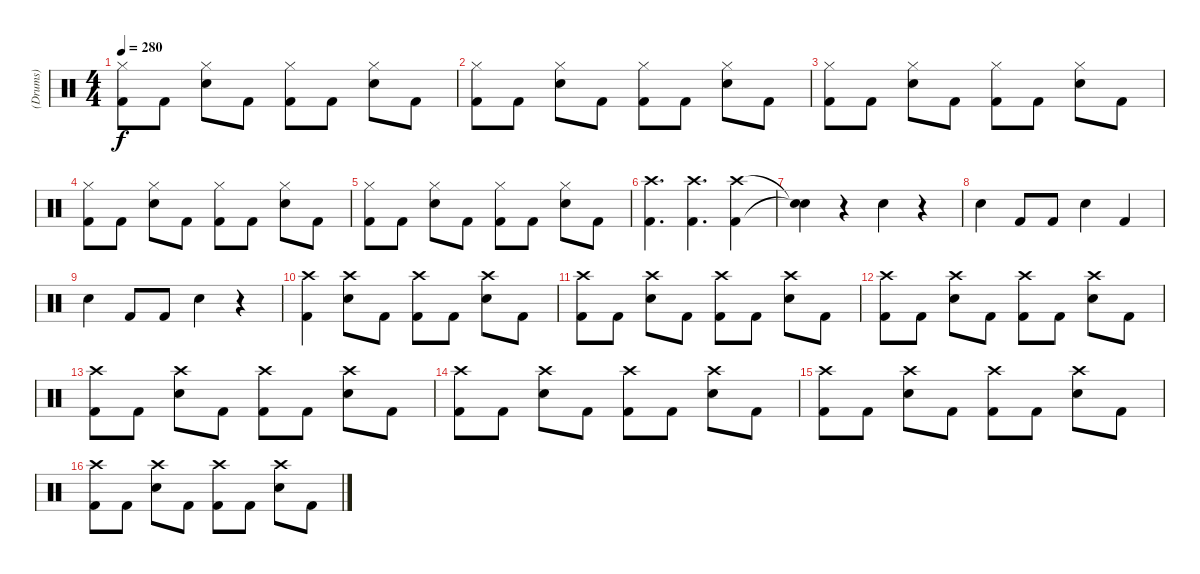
\track ("(Drums)" "(Drums)") {instrument percussion}
\staff {score}
\articulation defaults
\ts (4 4)
\tempo 280
\clef neutral
\ks c
("Hi-Hat (closed)" "Kick (hit) 2").8{dy f} "Kick (hit) 2".8 ("Hi-Hat (closed)" "Snare (hit) 2").8 "Kick (hit) 2".8 ("Hi-Hat (closed)" "Kick (hit) 2").8 "Kick (hit) 2".8 ("Hi-Hat (closed)" "Snare (hit) 2").8 "Kick (hit) 2".8 |
("Hi-Hat (closed)" "Kick (hit) 2").8 "Kick (hit) 2".8 ("Hi-Hat (closed)" "Snare (hit) 2").8 "Kick (hit) 2".8 ("Hi-Hat (closed)" "Kick (hit) 2").8 "Kick (hit) 2".8 ("Hi-Hat (closed)" "Snare (hit) 2").8 "Kick (hit) 2".8 |
("Hi-Hat (closed)" "Kick (hit) 2").8 "Kick (hit) 2".8 ("Hi-Hat (closed)" "Snare (hit) 2").8 "Kick (hit) 2".8 ("Hi-Hat (closed)" "Kick (hit) 2").8 "Kick (hit) 2".8 ("Hi-Hat (closed)" "Snare (hit) 2").8 "Kick (hit) 2".8 |
("Hi-Hat (closed)" "Kick (hit) 2").8 "Kick (hit) 2".8 ("Hi-Hat (closed)" "Snare (hit) 2").8 "Kick (hit) 2".8 ("Hi-Hat (closed)" "Kick (hit) 2").8 "Kick (hit) 2".8 ("Hi-Hat (closed)" "Snare (hit) 2").8 "Kick (hit) 2".8 |
("Hi-Hat (closed)" "Kick (hit) 2").8 "Kick (hit) 2".8 ("Hi-Hat (closed)" "Snare (hit) 2").8 "Kick (hit) 2".8 ("Hi-Hat (closed)" "Kick (hit) 2").8 "Kick (hit) 2".8 ("Hi-Hat (closed)" "Snare (hit) 2").8 "Kick (hit) 2".8 |
("Kick (hit) 2" "Crash high (hit)").4{d} ("Kick (hit) 2" "Crash high (hit)").4{d} ("Kick (hit) 2" "Crash high (hit)").4 |
("Snare (hit)"{t} "Snare (hit)"{t}).4 r.4 "Snare (hit) 2".4 r.4 |
"Snare (hit) 2".4 "Kick (hit) 2".8 "Kick (hit) 2".8 "Snare (hit) 2".4 "Kick (hit) 2".4 |
"Snare (hit) 2".4 "Kick (hit) 2".8 "Kick (hit) 2".8 "Snare (hit) 2".4 r.4 |
("Crash high (hit)" "Kick (hit) 2").4 ("Crash high (hit)" "Snare (hit) 2").8 "Kick (hit) 2".8 ("Crash high (hit)" "Kick (hit) 2").8 "Kick (hit) 2".8 ("Crash high (hit)" "Snare (hit) 2").8 "Kick (hit) 2".8 |
("Crash high (hit)" "Kick (hit) 2").8 "Kick (hit) 2".8 ("Crash high (hit)" "Snare (hit) 2").8 "Kick (hit) 2".8 ("Crash high (hit)" "Kick (hit) 2").8 "Kick (hit) 2".8 ("Crash high (hit)" "Snare (hit) 2").8 "Kick (hit) 2".8 |
("Crash high (hit)" "Kick (hit) 2").8 "Kick (hit) 2".8 ("Crash high (hit)" "Snare (hit) 2").8 "Kick (hit) 2".8 ("Crash high (hit)" "Kick (hit) 2").8 "Kick (hit) 2".8 ("Crash high (hit)" "Snare (hit) 2").8 "Kick (hit) 2".8 |
("Crash high (hit)" "Kick (hit) 2").8 "Kick (hit) 2".8 ("Crash high (hit)" "Snare (hit) 2").8 "Kick (hit) 2".8 ("Crash high (hit)" "Kick (hit) 2").8 "Kick (hit) 2".8 ("Crash high (hit)" "Snare (hit) 2").8 "Kick (hit) 2".8 |
("Crash high (hit)" "Kick (hit) 2").8 "Kick (hit) 2".8 ("Crash high (hit)" "Snare (hit) 2").8 "Kick (hit) 2".8 ("Crash high (hit)" "Kick (hit) 2").8 "Kick (hit) 2".8 ("Crash high (hit)" "Snare (hit) 2").8 "Kick (hit) 2".8 |
("Crash high (hit)" "Kick (hit) 2").8 "Kick (hit) 2".8 ("Crash high (hit)" "Snare (hit) 2").8 "Kick (hit) 2".8 ("Crash high (hit)" "Kick (hit) 2").8 "Kick (hit) 2".8 ("Crash high (hit)" "Snare (hit) 2").8 "Kick (hit) 2".8 |
("Crash high (hit)" "Kick (hit) 2").8 "Kick (hit) 2".8 ("Crash high (hit)" "Snare (hit) 2").8 "Kick (hit) 2".8 ("Crash high (hit)" "Kick (hit) 2").8 "Kick (hit) 2".8 ("Crash high (hit)" "Snare (hit) 2").8 "Kick (hit) 2".8
